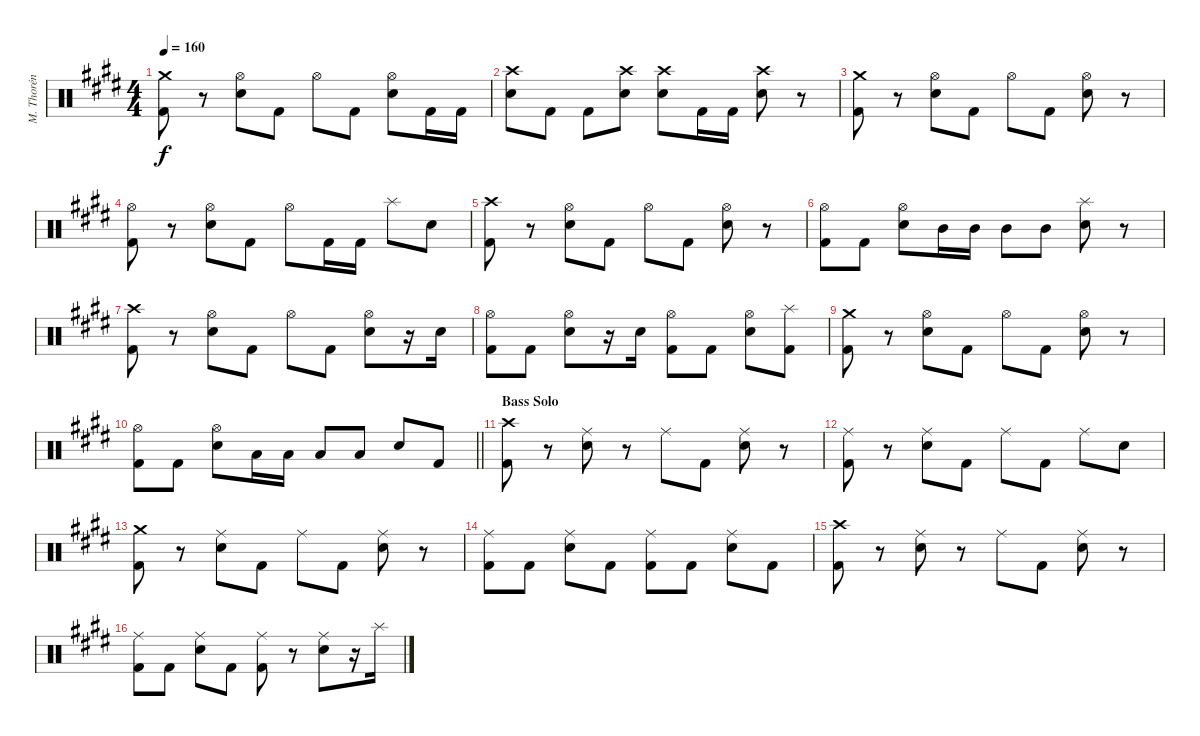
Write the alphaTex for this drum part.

\track ("M. Thorén (Drums)" "M. Thorén ") {instrument percussion}
\staff {score}
\articulation defaults
\ts (4 4)
\tempo 160
\clef neutral
\ks c#minor
("Crash medium (hit)" "Kick (hit) 2").8{dy f} r.8 ("Hi-Hat (open)" "Electric Snare (hit)").8 "Kick (hit) 2".8 "Hi-Hat (open)".8 "Kick (hit) 2".8 ("Hi-Hat (open)" "Electric Snare (hit)").8 "Kick (hit) 2".16 "Kick (hit) 2".16 |
("Crash high (hit)" "Electric Snare (hit)").8 "Kick (hit) 2".8 "Kick (hit) 2".8 ("Crash high (hit)" "Electric Snare (hit)").8 ("Crash high (hit)" "Electric Snare (hit)").8 "Kick (hit) 2".16 "Kick (hit) 2".16 ("Crash high (hit)" "Electric Snare (hit)").8 r.8 |
("Crash medium (hit)" "Kick (hit) 2").8 r.8 ("Hi-Hat (open)" "Electric Snare (hit)").8 "Kick (hit) 2".8 "Hi-Hat (open)".8 "Kick (hit) 2".8 ("Hi-Hat (open)" "Electric Snare (hit)").8 r.8 |
("Hi-Hat (open)" "Kick (hit) 2").8 r.8 ("Hi-Hat (open)" "Electric Snare (hit)").8 "Kick (hit) 2".8 "Hi-Hat (open)".8 "Kick (hit) 2".16 "Kick (hit) 2".16 "Splash (hit)".8 "Electric Snare (hit)".8 |
("Crash high (hit)" "Kick (hit) 2").8 r.8 ("Hi-Hat (open)" "Electric Snare (hit)").8 "Kick (hit) 2".8 "Hi-Hat (open)".8 "Kick (hit) 2".8 ("Hi-Hat (open)" "Electric Snare (hit)").8 r.8 |
("Hi-Hat (open)" "Kick (hit) 2").8 "Kick (hit) 2".8 ("Hi-Hat (open)" "Electric Snare (hit)").8 "Mid Tom (hit)".16 "Mid Tom (hit)".16 "Mid Tom (hit)".8 "Mid Tom (hit)".8 ("Splash (hit)" "Electric Snare (hit)").8 r.8 |
("Crash high (hit)" "Kick (hit) 2").8 r.8 ("Hi-Hat (open)" "Electric Snare (hit)").8 "Kick (hit) 2".8 "Hi-Hat (open)".8 "Kick (hit) 2".8 ("Hi-Hat (open)" "Electric Snare (hit)").8 r.16 "Electric Snare (hit)".16 |
("Hi-Hat (open)" "Kick (hit) 2").8 "Kick (hit) 2".8 ("Hi-Hat (open)" "Electric Snare (hit)").8 r.16 "Electric Snare (hit)".16 ("Hi-Hat (open)" "Kick (hit) 2").8 "Kick (hit) 2".8 ("Hi-Hat (open)" "Electric Snare (hit)").8 ("Splash (hit)" "Kick (hit) 2").8 |
("Crash medium (hit)" "Kick (hit) 2").8 r.8 ("Hi-Hat (open)" "Electric Snare (hit)").8 "Kick (hit) 2".8 "Hi-Hat (open)".8 "Kick (hit) 2".8 ("Hi-Hat (open)" "Electric Snare (hit)").8 r.8 |
\barLineRight lightlight
("Hi-Hat (open)" "Kick (hit) 2").8 "Kick (hit) 2".8 ("Hi-Hat (open)" "Electric Snare (hit)").8 "Low Tom (hit)".16 "Low Tom (hit)".16 "Low Tom (hit)".8 "Low Tom (hit)".8 "Electric Snare (hit)".8 "Kick (hit) 2".8 |
\section ("" "Bass Solo")
("Crash high (hit)" "Kick (hit) 2").8 r.8 ("Ride (middle)" "Electric Snare (hit)").8 r.8 "Ride (middle)".8 "Kick (hit) 2".8 ("Ride (middle)" "Electric Snare (hit)").8 r.8 |
("Ride (middle)" "Kick (hit) 2").8 r.8 ("Ride (middle)" "Electric Snare (hit)").8 "Kick (hit) 2".8 "Ride (middle)".8 "Kick (hit) 2".8 "Ride (middle)".8 "Electric Snare (hit)".8 |
("Crash medium (hit)" "Kick (hit) 2").8 r.8 ("Ride (middle)" "Electric Snare (hit)").8 "Kick (hit) 2".8 "Ride (middle)".8 "Kick (hit) 2".8 ("Ride (middle)" "Electric Snare (hit)").8 r.8 |
("Ride (middle)" "Kick (hit) 2").8 "Kick (hit) 2".8 ("Ride (middle)" "Electric Snare (hit)").8 "Kick (hit) 2".8 ("Ride (middle)" "Kick (hit) 2").8 "Kick (hit) 2".8 ("Ride (middle)" "Electric Snare (hit)").8 "Kick (hit) 2".8 |
("Crash high (hit)" "Kick (hit) 2").8 r.8 ("Ride (middle)" "Electric Snare (hit)").8 r.8 "Ride (middle)".8 "Kick (hit) 2".8 ("Ride (middle)" "Electric Snare (hit)").8 r.8 |
("Ride (middle)" "Kick (hit) 2").8 "Kick (hit) 2".8 ("Ride (middle)" "Electric Snare (hit)").8 "Kick (hit) 2".8 ("Ride (middle)" "Kick (hit) 2").8 r.8 ("Ride (middle)" "Electric Snare (hit)").8 r.16 "Splash (hit)".16
